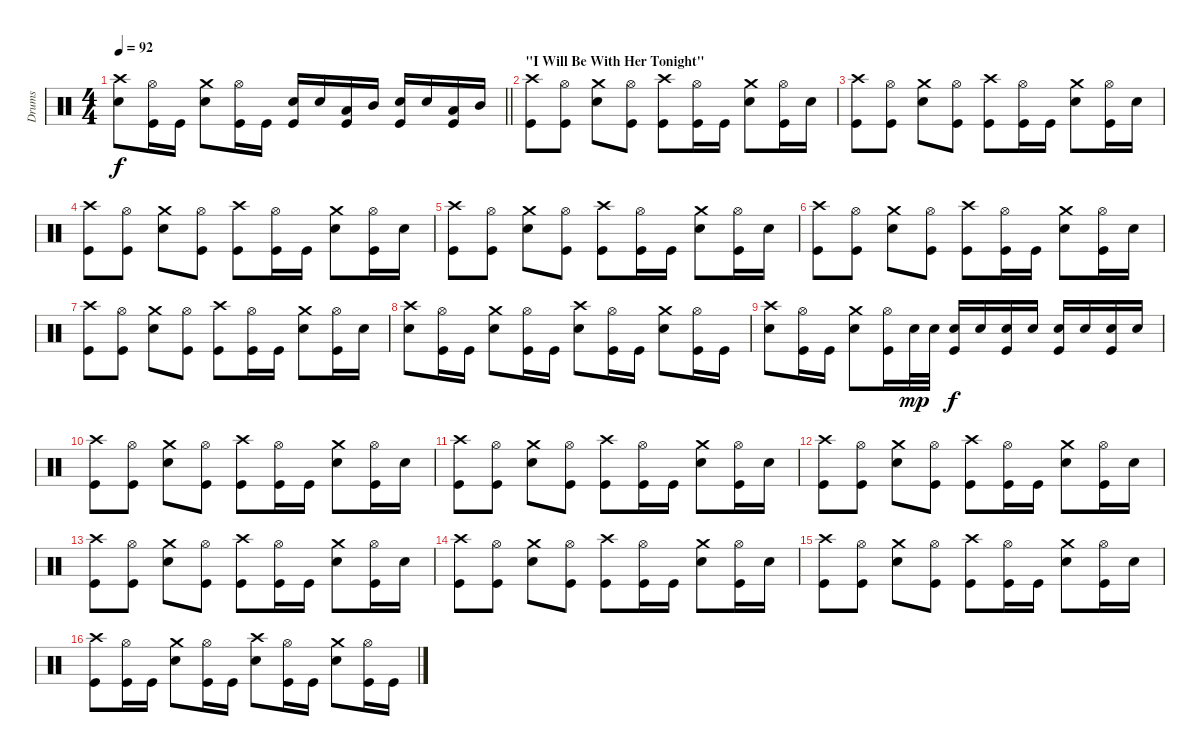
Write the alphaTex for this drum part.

\track ("Drums" "Drums") {instrument percussion}
\staff {score}
\articulation defaults
\ts (4 4)
\tempo 92
\clef neutral
\barLineRight lightlight
\ks c
("Crash high (hit)" "Electric Snare (hit)").8{dy f} ("Hi-Hat (open)" "Kick (hit)").16 "Kick (hit)".16 ("Crash medium (hit)" "Electric Snare (hit)").8 ("Hi-Hat (open)" "Kick (hit)").16 "Kick (hit)".16 ("Electric Snare (hit)" "Kick (hit)").16 "Electric Snare (hit)".16 ("Low Tom (hit)" "Kick (hit)").16 "Mid Tom (hit)".16 ("Electric Snare (hit)" "Kick (hit)").16 "Electric Snare (hit)".16 ("Low Tom (hit)" "Kick (hit)").16 "Mid Tom (hit)".16 |
\section ("" "\"I Will Be With Her Tonight\"")
("Crash high (hit)" "Kick (hit)").8 ("Hi-Hat (open)" "Kick (hit)").8 ("Crash medium (hit)" "Electric Snare (hit)").8 ("Hi-Hat (open)" "Kick (hit)").8 ("Crash high (hit)" "Kick (hit)").8 ("Hi-Hat (open)" "Kick (hit)").16 "Kick (hit)".16 ("Crash medium (hit)" "Electric Snare (hit)").8 ("Hi-Hat (open)" "Kick (hit)").16 "Electric Snare (hit)".16 |
("Crash high (hit)" "Kick (hit)").8 ("Hi-Hat (open)" "Kick (hit)").8 ("Crash medium (hit)" "Electric Snare (hit)").8 ("Hi-Hat (open)" "Kick (hit)").8 ("Crash high (hit)" "Kick (hit)").8 ("Hi-Hat (open)" "Kick (hit)").16 "Kick (hit)".16 ("Crash medium (hit)" "Electric Snare (hit)").8 ("Hi-Hat (open)" "Kick (hit)").16 "Electric Snare (hit)".16 |
("Crash high (hit)" "Kick (hit)").8 ("Hi-Hat (open)" "Kick (hit)").8 ("Crash medium (hit)" "Electric Snare (hit)").8 ("Hi-Hat (open)" "Kick (hit)").8 ("Crash high (hit)" "Kick (hit)").8 ("Hi-Hat (open)" "Kick (hit)").16 "Kick (hit)".16 ("Crash medium (hit)" "Electric Snare (hit)").8 ("Hi-Hat (open)" "Kick (hit)").16 "Electric Snare (hit)".16 |
("Crash high (hit)" "Kick (hit)").8 ("Hi-Hat (open)" "Kick (hit)").8 ("Crash medium (hit)" "Electric Snare (hit)").8 ("Hi-Hat (open)" "Kick (hit)").8 ("Crash high (hit)" "Kick (hit)").8 ("Hi-Hat (open)" "Kick (hit)").16 "Kick (hit)".16 ("Crash medium (hit)" "Electric Snare (hit)").8 ("Hi-Hat (open)" "Kick (hit)").16 "Electric Snare (hit)".16 |
("Crash high (hit)" "Kick (hit)").8 ("Hi-Hat (open)" "Kick (hit)").8 ("Crash medium (hit)" "Electric Snare (hit)").8 ("Hi-Hat (open)" "Kick (hit)").8 ("Crash high (hit)" "Kick (hit)").8 ("Hi-Hat (open)" "Kick (hit)").16 "Kick (hit)".16 ("Crash medium (hit)" "Electric Snare (hit)").8 ("Hi-Hat (open)" "Kick (hit)").16 "Electric Snare (hit)".16 |
("Crash high (hit)" "Kick (hit)").8 ("Hi-Hat (open)" "Kick (hit)").8 ("Crash medium (hit)" "Electric Snare (hit)").8 ("Hi-Hat (open)" "Kick (hit)").8 ("Crash high (hit)" "Kick (hit)").8 ("Hi-Hat (open)" "Kick (hit)").16 "Kick (hit)".16 ("Crash medium (hit)" "Electric Snare (hit)").8 ("Hi-Hat (open)" "Kick (hit)").16 "Electric Snare (hit)".16 |
("Crash high (hit)" "Electric Snare (hit)").8 ("Hi-Hat (open)" "Kick (hit)").16 "Kick (hit)".16 ("Crash medium (hit)" "Electric Snare (hit)").8 ("Hi-Hat (open)" "Kick (hit)").16 "Kick (hit)".16 ("Crash high (hit)" "Electric Snare (hit)").8 ("Hi-Hat (open)" "Kick (hit)").16 "Kick (hit)".16 ("Crash medium (hit)" "Electric Snare (hit)").8 ("Hi-Hat (open)" "Kick (hit)").16 "Kick (hit)".16 |
("Crash high (hit)" "Electric Snare (hit)").8 ("Hi-Hat (open)" "Kick (hit)").16 "Kick (hit)".16 ("Crash medium (hit)" "Electric Snare (hit)").8 ("Hi-Hat (open)" "Kick (hit)").16 "Electric Snare (hit)".32{dy mp} "Electric Snare (hit)".32 ("Electric Snare (hit)" "Kick (hit)").16{dy f} "Electric Snare (hit)".16 ("Electric Snare (hit)" "Kick (hit)").16 "Electric Snare (hit)".16 ("Electric Snare (hit)" "Kick (hit)").16 "Electric Snare (hit)".16 ("Electric Snare (hit)" "Kick (hit)").16 "Electric Snare (hit)".16 |
("Crash high (hit)" "Kick (hit)").8 ("Hi-Hat (open)" "Kick (hit)").8 ("Crash medium (hit)" "Electric Snare (hit)").8 ("Hi-Hat (open)" "Kick (hit)").8 ("Crash high (hit)" "Kick (hit)").8 ("Hi-Hat (open)" "Kick (hit)").16 "Kick (hit)".16 ("Crash medium (hit)" "Electric Snare (hit)").8 ("Hi-Hat (open)" "Kick (hit)").16 "Electric Snare (hit)".16 |
("Crash high (hit)" "Kick (hit)").8 ("Hi-Hat (open)" "Kick (hit)").8 ("Crash medium (hit)" "Electric Snare (hit)").8 ("Hi-Hat (open)" "Kick (hit)").8 ("Crash high (hit)" "Kick (hit)").8 ("Hi-Hat (open)" "Kick (hit)").16 "Kick (hit)".16 ("Crash medium (hit)" "Electric Snare (hit)").8 ("Hi-Hat (open)" "Kick (hit)").16 "Electric Snare (hit)".16 |
("Crash high (hit)" "Kick (hit)").8 ("Hi-Hat (open)" "Kick (hit)").8 ("Crash medium (hit)" "Electric Snare (hit)").8 ("Hi-Hat (open)" "Kick (hit)").8 ("Crash high (hit)" "Kick (hit)").8 ("Hi-Hat (open)" "Kick (hit)").16 "Kick (hit)".16 ("Crash medium (hit)" "Electric Snare (hit)").8 ("Hi-Hat (open)" "Kick (hit)").16 "Electric Snare (hit)".16 |
("Crash high (hit)" "Kick (hit)").8 ("Hi-Hat (open)" "Kick (hit)").8 ("Crash medium (hit)" "Electric Snare (hit)").8 ("Hi-Hat (open)" "Kick (hit)").8 ("Crash high (hit)" "Kick (hit)").8 ("Hi-Hat (open)" "Kick (hit)").16 "Kick (hit)".16 ("Crash medium (hit)" "Electric Snare (hit)").8 ("Hi-Hat (open)" "Kick (hit)").16 "Electric Snare (hit)".16 |
("Crash high (hit)" "Kick (hit)").8 ("Hi-Hat (open)" "Kick (hit)").8 ("Crash medium (hit)" "Electric Snare (hit)").8 ("Hi-Hat (open)" "Kick (hit)").8 ("Crash high (hit)" "Kick (hit)").8 ("Hi-Hat (open)" "Kick (hit)").16 "Kick (hit)".16 ("Crash medium (hit)" "Electric Snare (hit)").8 ("Hi-Hat (open)" "Kick (hit)").16 "Electric Snare (hit)".16 |
("Crash high (hit)" "Kick (hit)").8 ("Hi-Hat (open)" "Kick (hit)").8 ("Crash medium (hit)" "Electric Snare (hit)").8 ("Hi-Hat (open)" "Kick (hit)").8 ("Crash high (hit)" "Kick (hit)").8 ("Hi-Hat (open)" "Kick (hit)").16 "Kick (hit)".16 ("Crash medium (hit)" "Electric Snare (hit)").8 ("Hi-Hat (open)" "Kick (hit)").16 "Electric Snare (hit)".16 |
("Crash high (hit)" "Kick (hit)").8 ("Hi-Hat (open)" "Kick (hit)").16 "Kick (hit)".16 ("Crash medium (hit)" "Electric Snare (hit)").8 ("Hi-Hat (open)" "Kick (hit)").16 "Kick (hit)".16 ("Crash high (hit)" "Electric Snare (hit)").8 ("Hi-Hat (open)" "Kick (hit)").16 "Kick (hit)".16 ("Crash medium (hit)" "Electric Snare (hit)").8 ("Hi-Hat (open)" "Kick (hit)").16 "Kick (hit)".16
